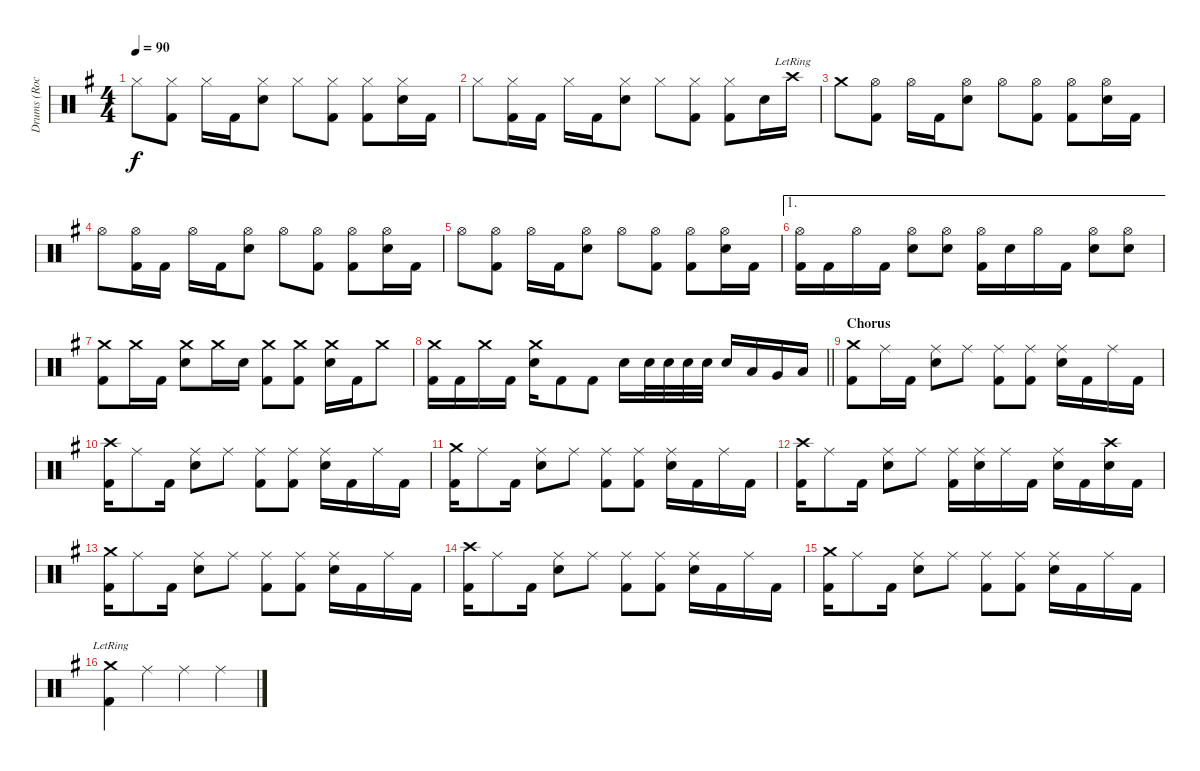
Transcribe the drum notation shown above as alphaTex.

\track ("Drums (Rocky Grey)" "Drums (Roc") {instrument percussion}
\staff {score}
\articulation defaults
\ts (4 4)
\tempo 90
\clef neutral
\ks g "Hi-Hat (closed)".8{dy f}
("Hi-Hat (closed)" "Kick (hit) 2").8 "Hi-Hat (closed)".16 "Kick (hit) 2".16 ("Hi-Hat (closed)" "Snare (hit) 2").8 "Hi-Hat (closed)".8 ("Hi-Hat (closed)" "Kick (hit) 2").8 ("Hi-Hat (closed)" "Kick (hit) 2").8 ("Hi-Hat (closed)" "Snare (hit) 2").16 "Kick (hit) 2".16 |
"Hi-Hat (closed)".8 ("Hi-Hat (closed)" "Kick (hit) 2").16 "Kick (hit) 2".16 "Hi-Hat (closed)".16 "Kick (hit) 2".16 ("Hi-Hat (closed)" "Snare (hit) 2").8 "Hi-Hat (closed)".8 ("Hi-Hat (closed)" "Kick (hit) 2").8 ("Hi-Hat (closed)" "Kick (hit) 2").8 "Snare (hit) 2".16 "Crash high (hit)"{lr}.16 |
"Crash medium (hit)".8 ("Hi-Hat (open)" "Kick (hit) 2").8 "Hi-Hat (open)".16 "Kick (hit) 2".16 ("Hi-Hat (open)" "Snare (hit) 2").8 "Hi-Hat (open)".8 ("Hi-Hat (open)" "Kick (hit) 2").8 ("Hi-Hat (open)" "Kick (hit) 2").8 ("Hi-Hat (open)" "Snare (hit) 2").16 "Kick (hit) 2".16 |
"Hi-Hat (open)".8 ("Hi-Hat (open)" "Kick (hit) 2").16 "Kick (hit) 2".16 "Hi-Hat (open)".16 "Kick (hit) 2".16 ("Hi-Hat (open)" "Snare (hit) 2").8 "Hi-Hat (open)".8 ("Hi-Hat (open)" "Kick (hit) 2").8 ("Hi-Hat (open)" "Kick (hit) 2").8 ("Hi-Hat (open)" "Snare (hit) 2").16 "Kick (hit) 2".16 |
"Hi-Hat (open)".8 ("Hi-Hat (open)" "Kick (hit) 2").8 "Hi-Hat (open)".16 "Kick (hit) 2".16 ("Hi-Hat (open)" "Snare (hit) 2").8 "Hi-Hat (open)".8 ("Hi-Hat (open)" "Kick (hit) 2").8 ("Hi-Hat (open)" "Kick (hit) 2").8 ("Hi-Hat (open)" "Snare (hit) 2").16 "Kick (hit) 2".16 |
\ae 1
("Hi-Hat (open)" "Kick (hit) 2").16 "Kick (hit) 2".16 "Hi-Hat (open)".16 "Kick (hit) 2".16 ("Hi-Hat (open)" "Snare (hit) 2").8 ("Hi-Hat (open)" "Snare (hit) 2").8 ("Hi-Hat (open)" "Kick (hit) 2").16 "Snare (hit) 2".16 "Hi-Hat (open)".16 "Kick (hit) 2".16 ("Hi-Hat (open)" "Snare (hit) 2").8 ("Hi-Hat (open)" "Snare (hit) 2").8 |
("Crash medium (hit)" "Kick (hit) 2").8 "Crash medium (hit)".16 "Kick (hit) 2".16 ("Crash medium (hit)" "Snare (hit) 2").8 "Crash medium (hit)".16 "Snare (hit) 2".16 ("Crash medium (hit)" "Kick (hit) 2").8 ("Crash medium (hit)" "Kick (hit) 2").8 ("Crash medium (hit)" "Snare (hit) 2").16 "Kick (hit) 2".16 "Crash medium (hit)".8 |
\barLineRight lightlight
("Crash medium (hit)" "Kick (hit) 2").16 "Kick (hit) 2".16 "Crash medium (hit)".16 "Kick (hit) 2".16 ("Crash medium (hit)" "Snare (hit) 2").16 "Kick (hit) 2".8 "Kick (hit) 2".8 "Snare (hit) 2".16 "Snare (hit) 2".32 "Snare (hit) 2".32 "Snare (hit) 2".32 "Snare (hit) 2".32 "Snare (hit) 2".16 "Low Tom (hit)".16 "Very Low Tom (hit)".16 "Low Floor Tom (hit)".16 |
\section ("" "Chorus")
("Crash medium (hit)" "Kick (hit) 2").8 "Ride (middle)".16 "Kick (hit) 2".16 ("Ride (middle)" "Snare (hit) 2").8 "Ride (middle)".8 ("Ride (middle)" "Kick (hit) 2").8 ("Ride (middle)" "Kick (hit) 2").8 ("Ride (middle)" "Snare (hit) 2").16 "Kick (hit) 2".16 "Ride (middle)".16 "Kick (hit) 2".16 |
("Crash high (hit)" "Kick (hit) 2").16 "Ride (middle)".8 "Kick (hit) 2".16 ("Ride (middle)" "Snare (hit) 2").8 "Ride (middle)".8 ("Ride (middle)" "Kick (hit) 2").8 ("Ride (middle)" "Kick (hit) 2").8 ("Ride (middle)" "Snare (hit) 2").16 "Kick (hit) 2".16 "Ride (middle)".16 "Kick (hit) 2".16 |
("Crash medium (hit)" "Kick (hit) 2").16 "Ride (middle)".8 "Kick (hit) 2".16 ("Ride (middle)" "Snare (hit) 2").8 "Ride (middle)".8 ("Ride (middle)" "Kick (hit) 2").8 ("Ride (middle)" "Kick (hit) 2").8 ("Ride (middle)" "Snare (hit) 2").16 "Kick (hit) 2".16 "Ride (middle)".16 "Kick (hit) 2".16 |
("Crash high (hit)" "Kick (hit) 2").16 "Ride (middle)".8 "Kick (hit) 2".16 ("Ride (middle)" "Snare (hit) 2").8 "Ride (middle)".8 ("Ride (middle)" "Kick (hit) 2").16 ("Ride (middle)" "Snare (hit) 2").16 "Ride (middle)".16 "Kick (hit) 2".16 ("Ride (middle)" "Snare (hit) 2").16 "Kick (hit) 2".16 ("Crash high (hit)" "Snare (hit) 2").16 "Kick (hit) 2".16 |
("Crash medium (hit)" "Kick (hit) 2").16 "Ride (middle)".8 "Kick (hit) 2".16 ("Ride (middle)" "Snare (hit) 2").8 "Ride (middle)".8 ("Ride (middle)" "Kick (hit) 2").8 ("Ride (middle)" "Kick (hit) 2").8 ("Ride (middle)" "Snare (hit) 2").16 "Kick (hit) 2".16 "Ride (middle)".16 "Kick (hit) 2".16 |
("Crash high (hit)" "Kick (hit) 2").16 "Ride (middle)".8 "Kick (hit) 2".16 ("Ride (middle)" "Snare (hit) 2").8 "Ride (middle)".8 ("Ride (middle)" "Kick (hit) 2").8 ("Ride (middle)" "Kick (hit) 2").8 ("Ride (middle)" "Snare (hit) 2").16 "Kick (hit) 2".16 "Ride (middle)".16 "Kick (hit) 2".16 |
("Crash medium (hit)" "Kick (hit) 2").16 "Ride (middle)".8 "Kick (hit) 2".16 ("Ride (middle)" "Snare (hit) 2").8 "Ride (middle)".8 ("Ride (middle)" "Kick (hit) 2").8 ("Ride (middle)" "Kick (hit) 2").8 ("Ride (middle)" "Snare (hit) 2").16 "Kick (hit) 2".16 "Ride (middle)".16 "Kick (hit) 2".16 |
("Crash medium (hit)"{lr} "Kick (hit) 2").4 "Ride (middle)".4 "Ride (middle)".4 "Ride (middle)".4
